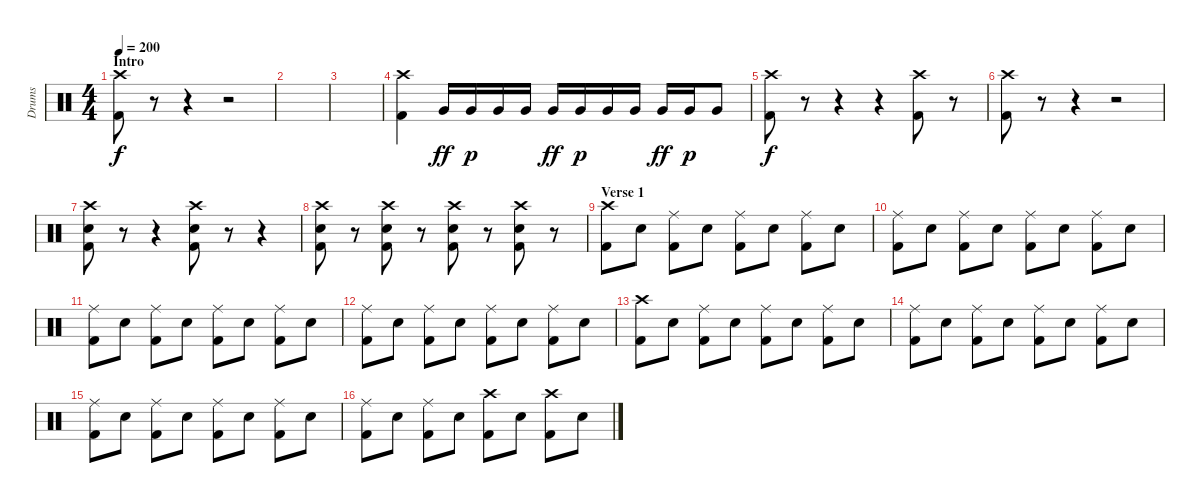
\track ("Drums" "Drums") {instrument percussion}
\staff {score}
\articulation defaults
\ts (4 4)
\section ("" "Intro")
\tempo 200
\clef neutral
\ks c
("Crash high (hit)" "Kick (hit) 2").8{dy f} r.8 r.4 r.2 |
|
|
("Crash high (hit)" "Kick (hit) 2").4 "Very Low Tom (hit)".16{dy ff} "Very Low Tom (hit)".16{dy p} "Very Low Tom (hit)".16 "Very Low Tom (hit)".16 "Very Low Tom (hit)".16{dy ff} "Very Low Tom (hit)".16{dy p} "Very Low Tom (hit)".16 "Very Low Tom (hit)".16 "Very Low Tom (hit)".16{dy ff} "Very Low Tom (hit)".16{dy p} "Very Low Tom (hit)".8 |
("Crash high (hit)" "Kick (hit) 2").8{dy f} r.8 r.4 r.4 ("Crash high (hit)" "Kick (hit) 2").8 r.8 |
("Crash high (hit)" "Kick (hit) 2").8 r.8 r.4 r.2 |
("Crash high (hit)" "Electric Snare (hit)" "Kick (hit) 2").8 r.8 r.4 ("Crash high (hit)" "Electric Snare (hit)" "Kick (hit) 2").8 r.8 r.4 |
("Crash high (hit)" "Electric Snare (hit)" "Kick (hit) 2").8 r.8 ("Crash high (hit)" "Electric Snare (hit)" "Kick (hit) 2").8 r.8 ("Crash high (hit)" "Electric Snare (hit)" "Kick (hit) 2").8 r.8 ("Crash high (hit)" "Electric Snare (hit)" "Kick (hit) 2").8 r.8 |
\section ("" "Verse 1")
("Crash high (hit)" "Kick (hit) 2").8 "Electric Snare (hit)".8 ("Ride (middle)" "Kick (hit) 2").8 "Electric Snare (hit)".8 ("Ride (middle)" "Kick (hit) 2").8 "Electric Snare (hit)".8 ("Ride (middle)" "Kick (hit) 2").8 "Electric Snare (hit)".8 |
("Ride (middle)" "Kick (hit) 2").8 "Electric Snare (hit)".8 ("Ride (middle)" "Kick (hit) 2").8 "Electric Snare (hit)".8 ("Ride (middle)" "Kick (hit) 2").8 "Electric Snare (hit)".8 ("Ride (middle)" "Kick (hit) 2").8 "Electric Snare (hit)".8 |
("Ride (middle)" "Kick (hit) 2").8 "Electric Snare (hit)".8 ("Ride (middle)" "Kick (hit) 2").8 "Electric Snare (hit)".8 ("Ride (middle)" "Kick (hit) 2").8 "Electric Snare (hit)".8 ("Ride (middle)" "Kick (hit) 2").8 "Electric Snare (hit)".8 |
("Ride (middle)" "Kick (hit) 2").8 "Electric Snare (hit)".8 ("Ride (middle)" "Kick (hit) 2").8 "Electric Snare (hit)".8 ("Ride (middle)" "Kick (hit) 2").8 "Electric Snare (hit)".8 ("Ride (middle)" "Kick (hit) 2").8 "Electric Snare (hit)".8 |
("Crash high (hit)" "Kick (hit) 2").8 "Electric Snare (hit)".8 ("Ride (middle)" "Kick (hit) 2").8 "Electric Snare (hit)".8 ("Ride (middle)" "Kick (hit) 2").8 "Electric Snare (hit)".8 ("Ride (middle)" "Kick (hit) 2").8 "Electric Snare (hit)".8 |
("Ride (middle)" "Kick (hit) 2").8 "Electric Snare (hit)".8 ("Ride (middle)" "Kick (hit) 2").8 "Electric Snare (hit)".8 ("Ride (middle)" "Kick (hit) 2").8 "Electric Snare (hit)".8 ("Ride (middle)" "Kick (hit) 2").8 "Electric Snare (hit)".8 |
("Ride (middle)" "Kick (hit) 2").8 "Electric Snare (hit)".8 ("Ride (middle)" "Kick (hit) 2").8 "Electric Snare (hit)".8 ("Ride (middle)" "Kick (hit) 2").8 "Electric Snare (hit)".8 ("Ride (middle)" "Kick (hit) 2").8 "Electric Snare (hit)".8 |
("Ride (middle)" "Kick (hit) 2").8 "Electric Snare (hit)".8 ("Ride (middle)" "Kick (hit) 2").8 "Electric Snare (hit)".8 ("Crash high (hit)" "Kick (hit) 2").8 "Electric Snare (hit)".8 ("Crash high (hit)" "Kick (hit) 2").8 "Electric Snare (hit)".8
